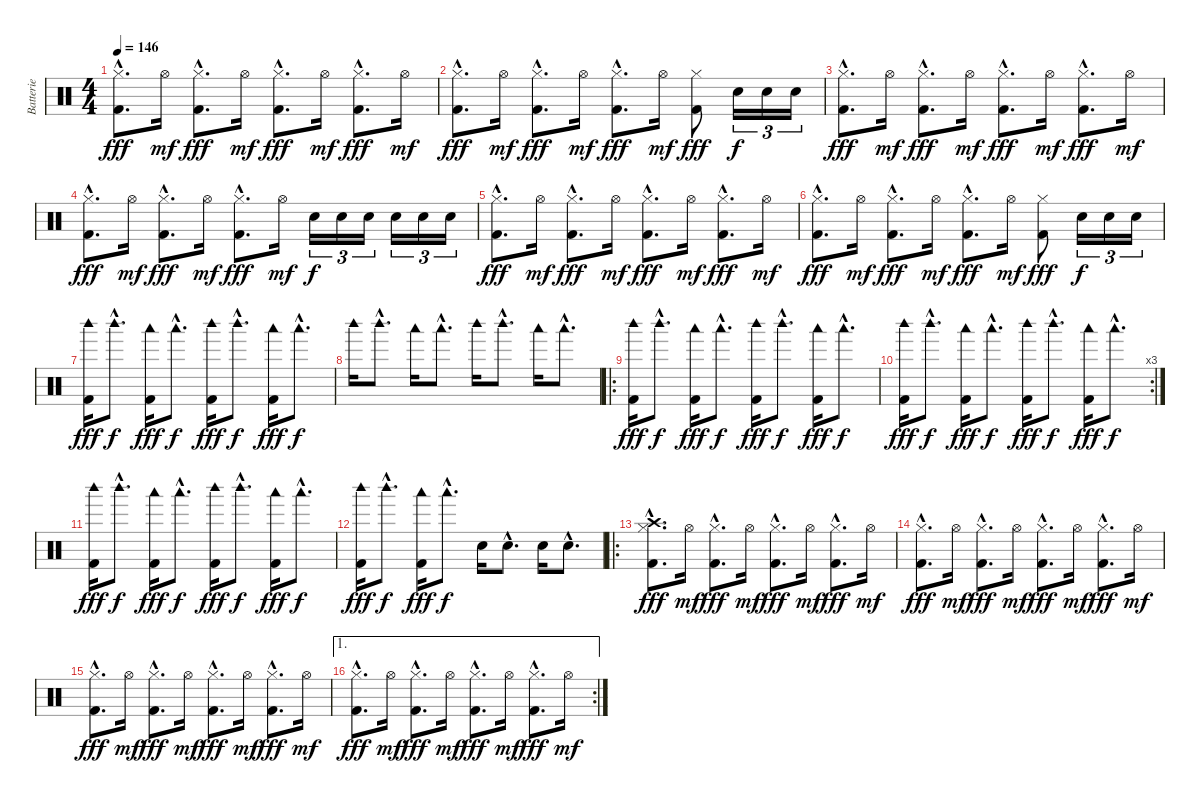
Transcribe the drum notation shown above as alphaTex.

\track ("Batterie" "Batterie") {instrument percussion}
\staff {score}
\articulation defaults
\ts (4 4)
\tempo 146
\clef neutral
\ks c
("Hi-Hat (closed)"{hac} "Kick (hit) 2"{hac}).8{d dy fff} "Hi-Hat (open)".16{dy mf} ("Hi-Hat (closed)"{hac} "Kick (hit) 2"{hac}).8{d dy fff} "Hi-Hat (open)".16{dy mf} ("Hi-Hat (closed)"{hac} "Kick (hit) 2"{hac}).8{d dy fff} "Hi-Hat (open)".16{dy mf} ("Hi-Hat (closed)"{hac} "Kick (hit) 2"{hac}).8{d dy fff} "Hi-Hat (open)".16{dy mf} |
("Hi-Hat (closed)"{hac} "Kick (hit) 2"{hac}).8{d dy fff} "Hi-Hat (open)".16{dy mf} ("Hi-Hat (closed)"{hac} "Kick (hit) 2"{hac}).8{d dy fff} "Hi-Hat (open)".16{dy mf} ("Hi-Hat (closed)"{hac} "Kick (hit) 2"{hac}).8{d dy fff} "Hi-Hat (open)".16{dy mf} ("Hi-Hat (closed)" "Kick (hit) 2").8{dy fff} "Electric Snare (hit)".16{tu (3 2) dy f} "Electric Snare (hit)".16{tu (3 2)} "Electric Snare (hit)".16{tu (3 2)} |
("Hi-Hat (closed)"{hac} "Kick (hit) 2"{hac}).8{d dy fff} "Hi-Hat (open)".16{dy mf} ("Hi-Hat (closed)"{hac} "Kick (hit) 2"{hac}).8{d dy fff} "Hi-Hat (open)".16{dy mf} ("Hi-Hat (closed)"{hac} "Kick (hit) 2"{hac}).8{d dy fff} "Hi-Hat (open)".16{dy mf} ("Hi-Hat (closed)"{hac} "Kick (hit) 2"{hac}).8{d dy fff} "Hi-Hat (open)".16{dy mf} |
("Hi-Hat (closed)"{hac} "Kick (hit) 2"{hac}).8{d dy fff} "Hi-Hat (open)".16{dy mf} ("Hi-Hat (closed)"{hac} "Kick (hit) 2"{hac}).8{d dy fff} "Hi-Hat (open)".16{dy mf} ("Hi-Hat (closed)"{hac} "Kick (hit) 2"{hac}).8{d dy fff} "Hi-Hat (open)".16{dy mf} "Electric Snare (hit)".16{tu (3 2) dy f} "Electric Snare (hit)".16{tu (3 2)} "Electric Snare (hit)".16{tu (3 2)} "Electric Snare (hit)".16{tu (3 2)} "Electric Snare (hit)".16{tu (3 2)} "Electric Snare (hit)".16{tu (3 2)} |
("Hi-Hat (closed)"{hac} "Kick (hit) 2"{hac}).8{d dy fff} "Hi-Hat (open)".16{dy mf} ("Hi-Hat (closed)"{hac} "Kick (hit) 2"{hac}).8{d dy fff} "Hi-Hat (open)".16{dy mf} ("Hi-Hat (closed)"{hac} "Kick (hit) 2"{hac}).8{d dy fff} "Hi-Hat (open)".16{dy mf} ("Hi-Hat (closed)"{hac} "Kick (hit) 2"{hac}).8{d dy fff} "Hi-Hat (open)".16{dy mf} |
("Hi-Hat (closed)"{hac} "Kick (hit) 2"{hac}).8{d dy fff} "Hi-Hat (open)".16{dy mf} ("Hi-Hat (closed)"{hac} "Kick (hit) 2"{hac}).8{d dy fff} "Hi-Hat (open)".16{dy mf} ("Hi-Hat (closed)"{hac} "Kick (hit) 2"{hac}).8{d dy fff} "Hi-Hat (open)".16{dy mf} ("Hi-Hat (closed)" "Kick (hit) 2").8{dy fff} "Electric Snare (hit)".16{tu (3 2) dy f} "Electric Snare (hit)".16{tu (3 2)} "Electric Snare (hit)".16{tu (3 2)} |
("Kick (hit) 2" "Woodblock high (hit)").16{dy fff} "Woodblock high (hit)"{hac}.8{d dy f} ("Kick (hit) 2" "Woodblock low (hit)").16{dy fff} "Woodblock low (hit)"{hac}.8{d dy f} ("Kick (hit) 2" "Woodblock high (hit)").16{dy fff} "Woodblock high (hit)"{hac}.8{d dy f} ("Kick (hit) 2" "Woodblock low (hit)").16{dy fff} "Woodblock low (hit)"{hac}.8{d dy f} |
"Woodblock high (hit)".16 "Woodblock high (hit)"{hac}.8{d} "Woodblock low (hit)".16 "Woodblock low (hit)"{hac}.8{d} "Woodblock high (hit)".16 "Woodblock high (hit)"{hac}.8{d} "Woodblock low (hit)".16 "Woodblock low (hit)"{hac}.8{d} |
\ro
("Kick (hit) 2" "Woodblock high (hit)").16{dy fff} "Woodblock high (hit)"{hac}.8{d dy f} ("Kick (hit) 2" "Woodblock low (hit)").16{dy fff} "Woodblock low (hit)"{hac}.8{d dy f} ("Kick (hit) 2" "Woodblock high (hit)").16{dy fff} "Woodblock high (hit)"{hac}.8{d dy f} ("Kick (hit) 2" "Woodblock low (hit)").16{dy fff} "Woodblock low (hit)"{hac}.8{d dy f} |
\rc 3
("Kick (hit) 2" "Woodblock high (hit)").16{dy fff} "Woodblock high (hit)"{hac}.8{d dy f} ("Kick (hit) 2" "Woodblock low (hit)").16{dy fff} "Woodblock low (hit)"{hac}.8{d dy f} ("Kick (hit) 2" "Woodblock high (hit)").16{dy fff} "Woodblock high (hit)"{hac}.8{d dy f} ("Kick (hit) 2" "Woodblock low (hit)").16{dy fff} "Woodblock low (hit)"{hac}.8{d dy f} |
("Kick (hit) 2" "Woodblock high (hit)").16{dy fff} "Woodblock high (hit)"{hac}.8{d dy f} ("Kick (hit) 2" "Woodblock low (hit)").16{dy fff} "Woodblock low (hit)"{hac}.8{d dy f} ("Kick (hit) 2" "Woodblock high (hit)").16{dy fff} "Woodblock high (hit)"{hac}.8{d dy f} ("Kick (hit) 2" "Woodblock low (hit)").16{dy fff} "Woodblock low (hit)"{hac}.8{d dy f} |
("Kick (hit) 2" "Woodblock high (hit)").16{dy fff} "Woodblock high (hit)"{hac}.8{d dy f} ("Kick (hit) 2" "Woodblock low (hit)").16{dy fff} "Woodblock low (hit)"{hac}.8{d dy f} "Electric Snare (hit)".16 "Electric Snare (hit)"{hac}.8{d} "Electric Snare (hit)".16 "Electric Snare (hit)"{hac}.8{d} |
\ro
("Hi-Hat (closed)"{hac} "Kick (hit) 2"{hac} "Crash high (hit)"{hac}).8{d dy fff} "Hi-Hat (open)".16{dy mf} ("Hi-Hat (closed)"{hac} "Kick (hit) 2"{hac}).8{d dy fff} "Hi-Hat (open)".16{dy mf} ("Hi-Hat (closed)"{hac} "Kick (hit) 2"{hac}).8{d dy fff} "Hi-Hat (open)".16{dy mf} ("Hi-Hat (closed)"{hac} "Kick (hit) 2"{hac}).8{d dy fff} "Hi-Hat (open)".16{dy mf} |
("Hi-Hat (closed)"{hac} "Kick (hit) 2"{hac}).8{d dy fff} "Hi-Hat (open)".16{dy mf} ("Hi-Hat (closed)"{hac} "Kick (hit) 2"{hac}).8{d dy fff} "Hi-Hat (open)".16{dy mf} ("Hi-Hat (closed)"{hac} "Kick (hit) 2"{hac}).8{d dy fff} "Hi-Hat (open)".16{dy mf} ("Hi-Hat (closed)"{hac} "Kick (hit) 2"{hac}).8{d dy fff} "Hi-Hat (open)".16{dy mf} |
("Hi-Hat (closed)"{hac} "Kick (hit) 2"{hac}).8{d dy fff} "Hi-Hat (open)".16{dy mf} ("Hi-Hat (closed)"{hac} "Kick (hit) 2"{hac}).8{d dy fff} "Hi-Hat (open)".16{dy mf} ("Hi-Hat (closed)"{hac} "Kick (hit) 2"{hac}).8{d dy fff} "Hi-Hat (open)".16{dy mf} ("Hi-Hat (closed)"{hac} "Kick (hit) 2"{hac}).8{d dy fff} "Hi-Hat (open)".16{dy mf} |
\ae 1
\rc 2
("Hi-Hat (closed)"{hac} "Kick (hit) 2"{hac}).8{d dy fff} "Hi-Hat (open)".16{dy mf} ("Hi-Hat (closed)"{hac} "Kick (hit) 2"{hac}).8{d dy fff} "Hi-Hat (open)".16{dy mf} ("Hi-Hat (closed)"{hac} "Kick (hit) 2"{hac}).8{d dy fff} "Hi-Hat (open)".16{dy mf} ("Hi-Hat (closed)"{hac} "Kick (hit) 2"{hac}).8{d dy fff} "Hi-Hat (open)".16{dy mf}
